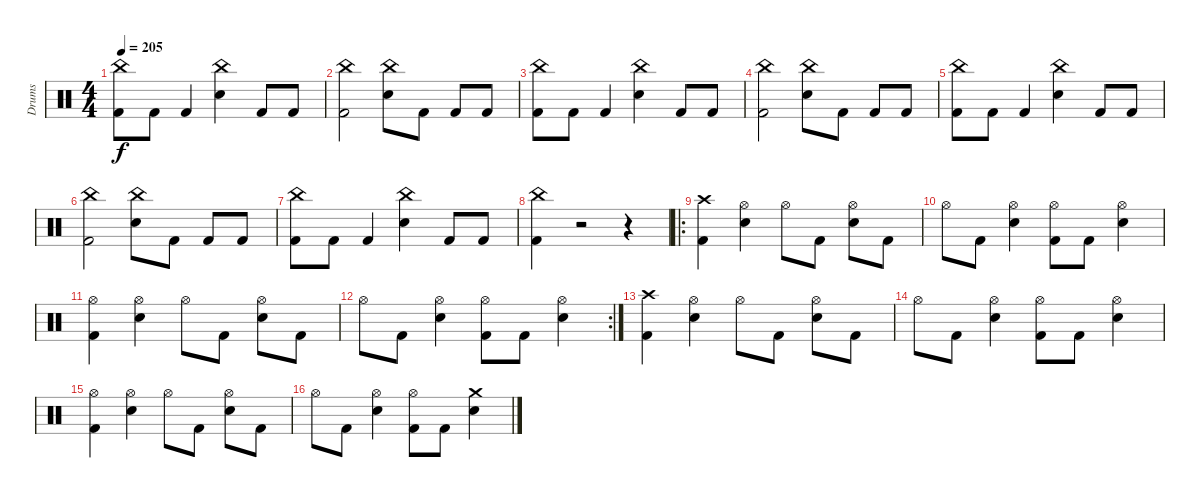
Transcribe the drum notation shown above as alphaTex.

\track ("Drums" "Drums") {instrument percussion}
\staff {score}
\articulation defaults
\ts (4 4)
\tempo 205
\clef neutral
\ks c
("China (hit)" "Kick (hit) 2").8{dy f} "Kick (hit) 2".8 "Kick (hit) 2".4 ("China (hit)" "Electric Snare (hit)").4 "Kick (hit) 2".8 "Kick (hit) 2".8 |
("China (hit)" "Kick (hit) 2").2 ("China (hit)" "Electric Snare (hit)").8 "Kick (hit) 2".8 "Kick (hit) 2".8 "Kick (hit) 2".8 |
("China (hit)" "Kick (hit) 2").8 "Kick (hit) 2".8 "Kick (hit) 2".4 ("China (hit)" "Electric Snare (hit)").4 "Kick (hit) 2".8 "Kick (hit) 2".8 |
("China (hit)" "Kick (hit) 2").2 ("China (hit)" "Electric Snare (hit)").8 "Kick (hit) 2".8 "Kick (hit) 2".8 "Kick (hit) 2".8 |
("China (hit)" "Kick (hit) 2").8 "Kick (hit) 2".8 "Kick (hit) 2".4 ("China (hit)" "Electric Snare (hit)").4 "Kick (hit) 2".8 "Kick (hit) 2".8 |
("China (hit)" "Kick (hit) 2").2 ("China (hit)" "Electric Snare (hit)").8 "Kick (hit) 2".8 "Kick (hit) 2".8 "Kick (hit) 2".8 |
("China (hit)" "Kick (hit) 2").8 "Kick (hit) 2".8 "Kick (hit) 2".4 ("China (hit)" "Electric Snare (hit)").4 "Kick (hit) 2".8 "Kick (hit) 2".8 |
("China (hit)" "Kick (hit) 2").4 r.2{volume 0} r.4{volume 16} |
\ro
("Crash high (hit)" "Kick (hit) 2").4 ("Hi-Hat (open)" "Electric Snare (hit)").4 "Hi-Hat (open)".8 "Kick (hit) 2".8 ("Hi-Hat (open)" "Electric Snare (hit)").8 "Kick (hit) 2".8 |
"Hi-Hat (open)".8 "Kick (hit) 2".8 ("Hi-Hat (open)" "Electric Snare (hit)").4 ("Hi-Hat (open)" "Kick (hit) 2").8 "Kick (hit) 2".8 ("Hi-Hat (open)" "Electric Snare (hit)").4 |
("Hi-Hat (open)" "Kick (hit) 2").4 ("Hi-Hat (open)" "Electric Snare (hit)").4 "Hi-Hat (open)".8 "Kick (hit) 2".8 ("Hi-Hat (open)" "Electric Snare (hit)").8 "Kick (hit) 2".8 |
\rc 2 "Hi-Hat (open)".8 "Kick (hit) 2".8
("Hi-Hat (open)" "Electric Snare (hit)").4 ("Hi-Hat (open)" "Kick (hit) 2").8 "Kick (hit) 2".8 ("Hi-Hat (open)" "Electric Snare (hit)").4 |
("Crash high (hit)" "Kick (hit) 2").4 ("Hi-Hat (open)" "Electric Snare (hit)").4 "Hi-Hat (open)".8 "Kick (hit) 2".8 ("Hi-Hat (open)" "Electric Snare (hit)").8 "Kick (hit) 2".8 |
"Hi-Hat (open)".8 "Kick (hit) 2".8 ("Hi-Hat (open)" "Electric Snare (hit)").4 ("Hi-Hat (open)" "Kick (hit) 2").8 "Kick (hit) 2".8 ("Hi-Hat (open)" "Electric Snare (hit)").4 |
("Hi-Hat (open)" "Kick (hit) 2").4 ("Hi-Hat (open)" "Electric Snare (hit)").4 "Hi-Hat (open)".8 "Kick (hit) 2".8 ("Hi-Hat (open)" "Electric Snare (hit)").8 "Kick (hit) 2".8 |
"Hi-Hat (open)".8 "Kick (hit) 2".8 ("Hi-Hat (open)" "Electric Snare (hit)").4 ("Hi-Hat (open)" "Kick (hit) 2").8 "Kick (hit) 2".8 ("Crash medium (hit)" "Electric Snare (hit)").4
